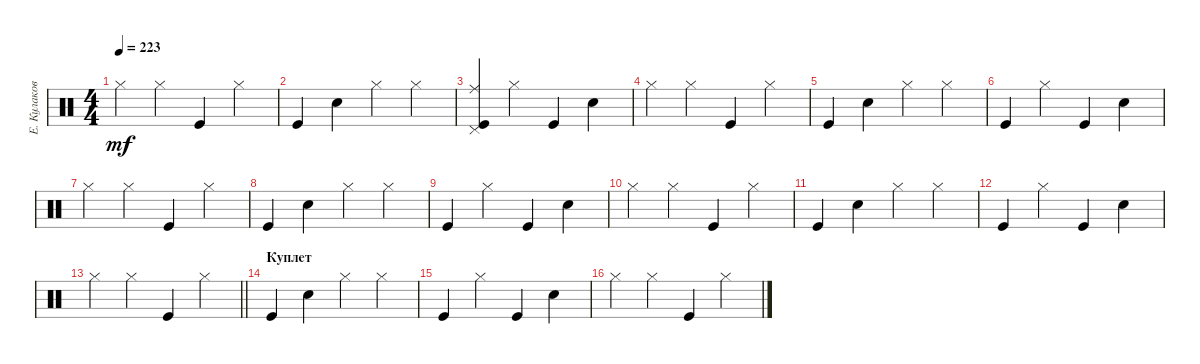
\track ("Е. Кулаков" "Е. Кулаков") {instrument percussion}
\staff {score}
\articulation defaults
\ts (4 4)
\tempo 223
\clef neutral
\ks c "Hi-Hat (closed)".4{dy mf} "Hi-Hat (closed)".4 "Kick (hit)".4 "Hi-Hat (closed)".4
|
"Kick (hit)".4 "Snare (hit) 2".4 "Hi-Hat (closed)".4 "Hi-Hat (closed)".4 |
("Kick (hit)" "Ride (middle)" "Pedal Hi-Hat (hit)").4 "Hi-Hat (closed)".4 "Kick (hit)".4 "Snare (hit) 2".4 |
"Hi-Hat (closed)".4 "Hi-Hat (closed)".4 "Kick (hit)".4 "Hi-Hat (closed)".4 |
"Kick (hit)".4 "Snare (hit) 2".4 "Hi-Hat (closed)".4 "Hi-Hat (closed)".4 |
"Kick (hit)".4 "Hi-Hat (closed)".4 "Kick (hit)".4 "Snare (hit) 2".4 |
"Hi-Hat (closed)".4 "Hi-Hat (closed)".4 "Kick (hit)".4 "Hi-Hat (closed)".4 |
"Kick (hit)".4 "Snare (hit) 2".4 "Hi-Hat (closed)".4 "Hi-Hat (closed)".4 |
"Kick (hit)".4 "Hi-Hat (closed)".4 "Kick (hit)".4 "Snare (hit) 2".4 |
"Hi-Hat (closed)".4 "Hi-Hat (closed)".4 "Kick (hit)".4 "Hi-Hat (closed)".4 |
"Kick (hit)".4 "Snare (hit) 2".4 "Hi-Hat (closed)".4 "Hi-Hat (closed)".4 |
"Kick (hit)".4 "Hi-Hat (closed)".4 "Kick (hit)".4 "Snare (hit) 2".4 |
\barLineRight lightlight "Hi-Hat (closed)".4 "Hi-Hat (closed)".4 "Kick (hit)".4 "Hi-Hat (closed)".4
|
\section ("" "Куплет")
"Kick (hit)".4 "Snare (hit) 2".4 "Hi-Hat (closed)".4 "Hi-Hat (closed)".4 |
"Kick (hit)".4 "Hi-Hat (closed)".4 "Kick (hit)".4 "Snare (hit) 2".4 |
"Hi-Hat (closed)".4 "Hi-Hat (closed)".4 "Kick (hit)".4 "Hi-Hat (closed)".4
